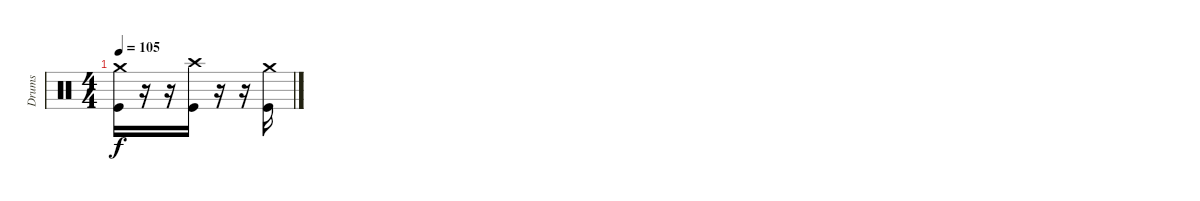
\track ("Drums" "Drums") {instrument percussion}
\staff {score}
\articulation defaults
\ts (4 4)
\tempo 105
\clef neutral
\ks c
("Crash medium (hit)" "Kick (hit)").16{dy f} r.16 r.16 ("Crash high (hit)" "Kick (hit)").16 r.16 r.16 ("Crash medium (hit)" "Kick (hit)").16
